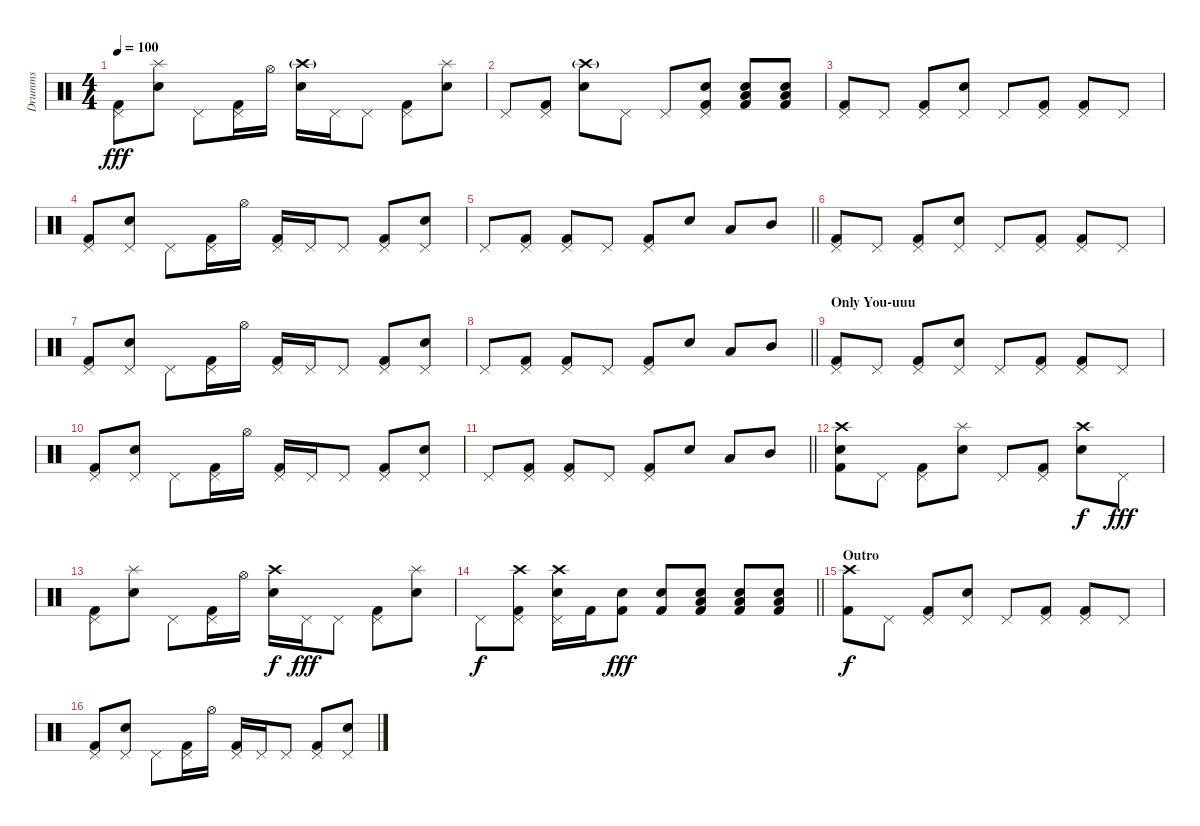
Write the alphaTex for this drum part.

\track ("Drumms" "Drumms") {instrument percussion}
\staff {score}
\articulation defaults
\ts (4 4)
\tempo 100
\clef neutral
\ks c
("Pedal Hi-Hat (hit)" "Kick (hit) 2").8{dy fff} ("Splash (hit)" "Snare (hit) 2").8 "Pedal Hi-Hat (hit)".8 ("Pedal Hi-Hat (hit)" "Kick (hit) 2").16 "Hi-Hat (open)".16 ("Crash high (hit)"{g} "Snare (hit) 2").16 "Pedal Hi-Hat (hit)".16 "Pedal Hi-Hat (hit)".8 ("Pedal Hi-Hat (hit)" "Kick (hit) 2").8 ("Splash (hit)" "Snare (hit) 2").8 |
"Pedal Hi-Hat (hit)".8 ("Pedal Hi-Hat (hit)" "Kick (hit) 2").8 ("Crash high (hit)"{g} "Snare (hit) 2").8 "Pedal Hi-Hat (hit)".8 "Pedal Hi-Hat (hit)".8 ("Pedal Hi-Hat (hit)" "Snare (hit) 2" "Kick (hit) 2").8 ("Low Tom (hit)" "Snare (hit) 2" "Kick (hit) 2").8 ("Low Tom (hit)" "Snare (hit) 2" "Kick (hit) 2").8 |
("Pedal Hi-Hat (hit)" "Kick (hit) 2").8 "Pedal Hi-Hat (hit)".8 ("Pedal Hi-Hat (hit)" "Kick (hit) 2").8 ("Pedal Hi-Hat (hit)" "Snare (hit) 2").8 "Pedal Hi-Hat (hit)".8 ("Pedal Hi-Hat (hit)" "Kick (hit) 2").8 ("Pedal Hi-Hat (hit)" "Kick (hit) 2").8 "Pedal Hi-Hat (hit)".8 |
("Pedal Hi-Hat (hit)" "Kick (hit) 2").8 ("Pedal Hi-Hat (hit)" "Snare (hit) 2").8 "Pedal Hi-Hat (hit)".8 ("Pedal Hi-Hat (hit)" "Kick (hit) 2").16 "Hi-Hat (open)".16 ("Pedal Hi-Hat (hit)" "Kick (hit) 2").16 "Pedal Hi-Hat (hit)".16 "Pedal Hi-Hat (hit)".8 ("Pedal Hi-Hat (hit)" "Kick (hit) 2").8 ("Pedal Hi-Hat (hit)" "Snare (hit) 2").8 |
\barLineRight lightlight "Pedal Hi-Hat (hit)".8
("Pedal Hi-Hat (hit)" "Kick (hit) 2").8 ("Pedal Hi-Hat (hit)" "Kick (hit) 2").8 "Pedal Hi-Hat (hit)".8 ("Pedal Hi-Hat (hit)" "Kick (hit) 2").8 "Snare (hit) 2".8 "Low Tom (hit)".8 "Mid Tom (hit)".8 |
("Pedal Hi-Hat (hit)" "Kick (hit) 2").8 "Pedal Hi-Hat (hit)".8 ("Pedal Hi-Hat (hit)" "Kick (hit) 2").8 ("Pedal Hi-Hat (hit)" "Snare (hit) 2").8 "Pedal Hi-Hat (hit)".8 ("Pedal Hi-Hat (hit)" "Kick (hit) 2").8 ("Pedal Hi-Hat (hit)" "Kick (hit) 2").8 "Pedal Hi-Hat (hit)".8 |
("Pedal Hi-Hat (hit)" "Kick (hit) 2").8 ("Pedal Hi-Hat (hit)" "Snare (hit) 2").8 "Pedal Hi-Hat (hit)".8 ("Pedal Hi-Hat (hit)" "Kick (hit) 2").16 "Hi-Hat (open)".16 ("Pedal Hi-Hat (hit)" "Kick (hit) 2").16 "Pedal Hi-Hat (hit)".16 "Pedal Hi-Hat (hit)".8 ("Pedal Hi-Hat (hit)" "Kick (hit) 2").8 ("Pedal Hi-Hat (hit)" "Snare (hit) 2").8 |
\barLineRight lightlight "Pedal Hi-Hat (hit)".8
("Pedal Hi-Hat (hit)" "Kick (hit) 2").8 ("Pedal Hi-Hat (hit)" "Kick (hit) 2").8 "Pedal Hi-Hat (hit)".8 ("Pedal Hi-Hat (hit)" "Kick (hit) 2").8 "Snare (hit) 2".8 "Low Tom (hit)".8 "Mid Tom (hit)".8 |
\section ("" "Only You-uuu")
("Pedal Hi-Hat (hit)" "Kick (hit) 2").8 "Pedal Hi-Hat (hit)".8 ("Pedal Hi-Hat (hit)" "Kick (hit) 2").8 ("Pedal Hi-Hat (hit)" "Snare (hit) 2").8 "Pedal Hi-Hat (hit)".8 ("Pedal Hi-Hat (hit)" "Kick (hit) 2").8 ("Pedal Hi-Hat (hit)" "Kick (hit) 2").8 "Pedal Hi-Hat (hit)".8 |
("Pedal Hi-Hat (hit)" "Kick (hit) 2").8 ("Pedal Hi-Hat (hit)" "Snare (hit) 2").8 "Pedal Hi-Hat (hit)".8 ("Pedal Hi-Hat (hit)" "Kick (hit) 2").16 "Hi-Hat (open)".16 ("Pedal Hi-Hat (hit)" "Kick (hit) 2").16 "Pedal Hi-Hat (hit)".16 "Pedal Hi-Hat (hit)".8 ("Pedal Hi-Hat (hit)" "Kick (hit) 2").8 ("Pedal Hi-Hat (hit)" "Snare (hit) 2").8 |
\barLineRight lightlight "Pedal Hi-Hat (hit)".8
("Pedal Hi-Hat (hit)" "Kick (hit) 2").8 ("Pedal Hi-Hat (hit)" "Kick (hit) 2").8 "Pedal Hi-Hat (hit)".8 ("Pedal Hi-Hat (hit)" "Kick (hit) 2").8 "Snare (hit) 2".8 "Low Tom (hit)".8 "Mid Tom (hit)".8 |
("Crash high (hit)" "Snare (hit) 2" "Kick (hit) 2").8 "Pedal Hi-Hat (hit)".8 ("Pedal Hi-Hat (hit)" "Kick (hit) 2").8 ("Splash (hit)" "Snare (hit) 2").8 "Pedal Hi-Hat (hit)".8 ("Pedal Hi-Hat (hit)" "Kick (hit) 2").8 ("Crash high (hit)" "Snare (hit) 2").8{dy f} "Pedal Hi-Hat (hit)".8{dy fff} |
("Pedal Hi-Hat (hit)" "Kick (hit) 2").8 ("Splash (hit)" "Snare (hit) 2").8 "Pedal Hi-Hat (hit)".8 ("Pedal Hi-Hat (hit)" "Kick (hit) 2").16 "Hi-Hat (open)".16 ("Crash high (hit)" "Snare (hit) 2").16{dy f} "Pedal Hi-Hat (hit)".16{dy fff} "Pedal Hi-Hat (hit)".8 ("Pedal Hi-Hat (hit)" "Kick (hit) 2").8 ("Splash (hit)" "Snare (hit) 2").8 |
\barLineRight lightlight "Pedal Hi-Hat (hit)".8{dy f}
("Crash high (hit)" "Pedal Hi-Hat (hit)" "Kick (hit) 2").8 ("Crash high (hit)" "Pedal Hi-Hat (hit)" "Snare (hit) 2").16 "Kick (hit) 2".16 ("Snare (hit) 2" "Kick (hit) 2").8{dy fff} ("Snare (hit) 2" "Kick (hit) 2").8 ("Low Tom (hit)" "Snare (hit) 2" "Kick (hit) 2").8 ("Low Tom (hit)" "Snare (hit) 2" "Kick (hit) 2").8 ("Low Tom (hit)" "Snare (hit) 2" "Kick (hit) 2").8 |
\section ("" "Outro")
("Crash high (hit)" "Kick (hit) 2").8{dy f} "Pedal Hi-Hat (hit)".8 ("Pedal Hi-Hat (hit)" "Kick (hit) 2").8 ("Pedal Hi-Hat (hit)" "Snare (hit) 2").8 "Pedal Hi-Hat (hit)".8 ("Pedal Hi-Hat (hit)" "Kick (hit) 2").8 ("Pedal Hi-Hat (hit)" "Kick (hit) 2").8 "Pedal Hi-Hat (hit)".8 |
("Pedal Hi-Hat (hit)" "Kick (hit) 2").8 ("Pedal Hi-Hat (hit)" "Snare (hit) 2").8 "Pedal Hi-Hat (hit)".8 ("Pedal Hi-Hat (hit)" "Kick (hit) 2").16 "Hi-Hat (open)".16 ("Pedal Hi-Hat (hit)" "Kick (hit) 2").16 "Pedal Hi-Hat (hit)".16 "Pedal Hi-Hat (hit)".8 ("Pedal Hi-Hat (hit)" "Kick (hit) 2").8 ("Pedal Hi-Hat (hit)" "Snare (hit) 2").8
